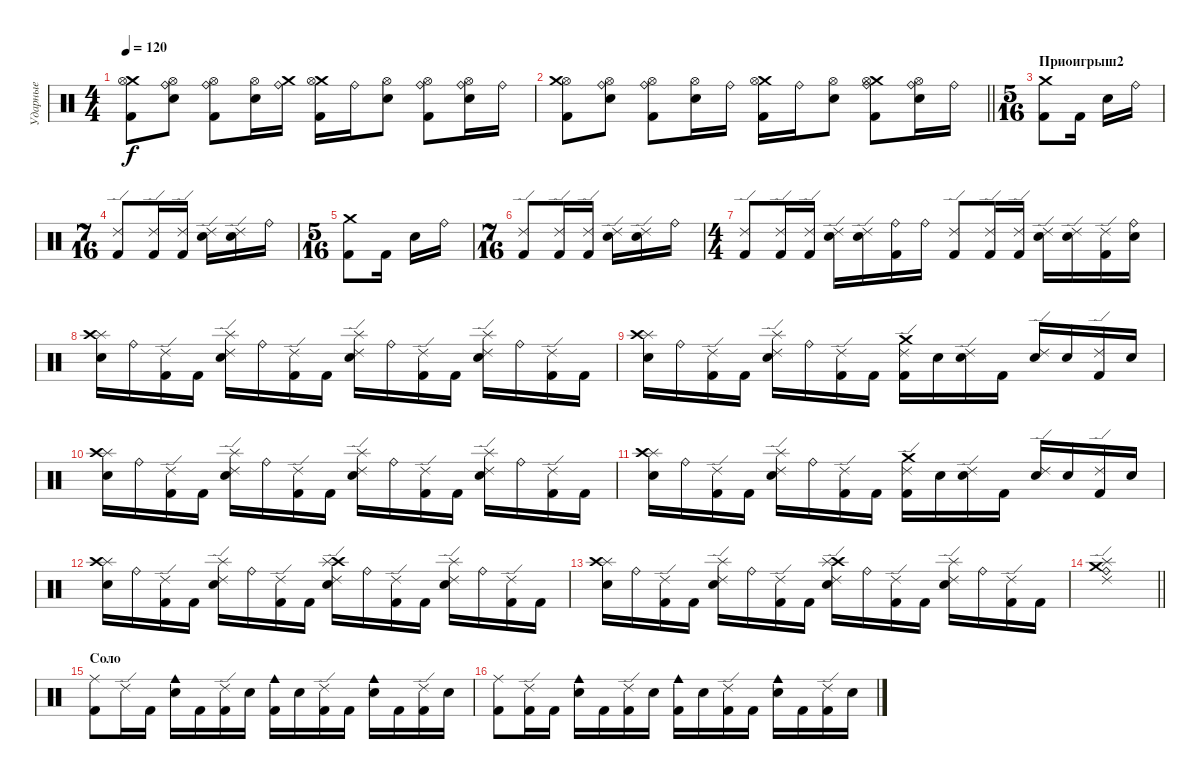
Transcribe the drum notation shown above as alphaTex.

\track ("Ударные" "Ударные") {instrument percussion}
\staff {score}
\articulation defaults
\ts (4 4)
\tempo 120
\clef neutral
\ks c
("Crash medium (hit)" "Kick (hit) 2" "Hi-Hat (open)").8{dy f} ("Electric Snare (hit)" "Hi-Hat (open)" "Ride (bell)").8 ("Kick (hit) 2" "Hi-Hat (open)" "Ride (bell)").8 ("Electric Snare (hit)" "Hi-Hat (open)").16 ("Crash medium (hit)" "Ride (bell)").16 ("Kick (hit) 2" "Crash medium (hit)" "Hi-Hat (open)").16 "Ride (bell)".16 ("Electric Snare (hit)" "Hi-Hat (open)").8 ("Kick (hit) 2" "Hi-Hat (open)" "Ride (bell)").8 ("Electric Snare (hit)" "Hi-Hat (open)" "Ride (bell)").16 "Ride (bell)".16 |
\barLineRight lightlight
("Hi-Hat (open)" "Crash medium (hit)" "Kick (hit) 2").8 ("Hi-Hat (open)" "Electric Snare (hit)" "Ride (bell)").8 ("Hi-Hat (open)" "Kick (hit) 2" "Ride (bell)").8 ("Hi-Hat (open)" "Electric Snare (hit)").16 "Ride (bell)".16 ("Kick (hit) 2" "Crash medium (hit)" "Hi-Hat (open)").16 "Ride (bell)".16 ("Electric Snare (hit)" "Hi-Hat (open)").8 ("Kick (hit) 2" "Crash medium (hit)" "Hi-Hat (open)" "Ride (bell)").8 ("Electric Snare (hit)" "Hi-Hat (open)" "Ride (bell)").16 "Ride (bell)".16 |
\ts (5 16)
\section ("" "Приоигрыш2")
("Kick (hit) 2" "Crash medium (hit)").8 "Kick (hit) 2".16 "Electric Snare (hit)".16 "Ride (bell)".16 |
\ts (7 16)
("Ride (edge) 2" "Kick (hit) 2").8 ("Ride (edge) 2" "Kick (hit) 2").16 ("Ride (edge) 2" "Kick (hit) 2").16 ("Ride (edge) 2" "Electric Snare (hit)").16 ("Ride (edge) 2" "Electric Snare (hit)").16 "Ride (bell)".16 |
\ts (5 16)
("Kick (hit) 2" "Crash medium (hit)").8 "Kick (hit) 2".16 "Electric Snare (hit)".16 "Ride (bell)".16 |
\ts (7 16)
("Ride (edge) 2" "Kick (hit) 2").8 ("Ride (edge) 2" "Kick (hit) 2").16 ("Ride (edge) 2" "Kick (hit) 2").16 ("Ride (edge) 2" "Electric Snare (hit)").16 ("Ride (edge) 2" "Electric Snare (hit)").16 "Ride (bell)".16 |
\ts (4 4)
("Ride (edge) 2" "Kick (hit) 2").8 ("Ride (edge) 2" "Kick (hit) 2").16 ("Ride (edge) 2" "Kick (hit) 2").16 ("Ride (edge) 2" "Electric Snare (hit)").16 ("Ride (edge) 2" "Electric Snare (hit)").16 ("Kick (hit) 2" "Ride (bell)").16 "Ride (bell)".16 ("Ride (edge) 2" "Kick (hit) 2").8 ("Ride (edge) 2" "Kick (hit) 2").16 ("Ride (edge) 2" "Kick (hit) 2").16 ("Ride (edge) 2" "Electric Snare (hit)").16 ("Ride (edge) 2" "Electric Snare (hit)").16 ("Ride (edge) 2" "Kick (hit) 2").16 ("Ride (bell)" "Electric Snare (hit)").16 |
("Splash (hit)" "Crash high (hit)" "Electric Snare (hit)").16 "Ride (bell)".16 ("Ride (edge) 2" "Kick (hit) 2").16 "Kick (hit) 2".16 ("Splash (hit)" "Ride (edge) 2" "Electric Snare (hit)").16 "Ride (bell)".16 ("Ride (edge) 2" "Kick (hit) 2").16 "Kick (hit) 2".16 ("Splash (hit)" "Ride (edge) 2" "Electric Snare (hit)").16 "Ride (bell)".16 ("Ride (edge) 2" "Kick (hit) 2").16 "Kick (hit) 2".16 ("Splash (hit)" "Ride (edge) 2" "Electric Snare (hit)").16 "Ride (bell)".16 ("Ride (edge) 2" "Kick (hit) 2").16 "Kick (hit) 2".16 |
("Splash (hit)" "Crash high (hit)" "Electric Snare (hit)").16 "Ride (bell)".16 ("Ride (edge) 2" "Kick (hit) 2").16 "Kick (hit) 2".16 ("Splash (hit)" "Ride (edge) 2" "Electric Snare (hit)").16 "Ride (bell)".16 ("Ride (edge) 2" "Kick (hit) 2").16 "Kick (hit) 2".16 ("Ride (edge) 2" "Crash medium (hit)" "Kick (hit) 2").16 "Electric Snare (hit)".16 ("Ride (edge) 2" "Electric Snare (hit)").16 "Kick (hit) 2".16 ("Ride (edge) 2" "Electric Snare (hit)").16 "Electric Snare (hit)".16 ("Ride (edge) 2" "Kick (hit) 2").16 "Electric Snare (hit)".16 |
("Splash (hit)" "Crash high (hit)" "Electric Snare (hit)").16 "Ride (bell)".16 ("Ride (edge) 2" "Kick (hit) 2").16 "Kick (hit) 2".16 ("Splash (hit)" "Ride (edge) 2" "Electric Snare (hit)").16 "Ride (bell)".16 ("Ride (edge) 2" "Kick (hit) 2").16 "Kick (hit) 2".16 ("Splash (hit)" "Ride (edge) 2" "Electric Snare (hit)").16 "Ride (bell)".16 ("Ride (edge) 2" "Kick (hit) 2").16 "Kick (hit) 2".16 ("Splash (hit)" "Ride (edge) 2" "Electric Snare (hit)").16 "Ride (bell)".16 ("Ride (edge) 2" "Kick (hit) 2").16 "Kick (hit) 2".16 |
("Splash (hit)" "Crash high (hit)" "Electric Snare (hit)").16 "Ride (bell)".16 ("Ride (edge) 2" "Kick (hit) 2").16 "Kick (hit) 2".16 ("Splash (hit)" "Ride (edge) 2" "Electric Snare (hit)").16 "Ride (bell)".16 ("Ride (edge) 2" "Kick (hit) 2").16 "Kick (hit) 2".16 ("Ride (edge) 2" "Crash medium (hit)" "Kick (hit) 2").16 "Electric Snare (hit)".16 ("Ride (edge) 2" "Electric Snare (hit)").16 "Kick (hit) 2".16 ("Ride (edge) 2" "Electric Snare (hit)").16 "Electric Snare (hit)".16 ("Ride (edge) 2" "Kick (hit) 2").16 "Electric Snare (hit)".16 |
("Splash (hit)" "Crash high (hit)" "Electric Snare (hit)").16 "Ride (bell)".16 ("Ride (edge) 2" "Kick (hit) 2").16 "Kick (hit) 2".16 ("Splash (hit)" "Ride (edge) 2" "Electric Snare (hit)").16 "Ride (bell)".16 ("Ride (edge) 2" "Kick (hit) 2").16 "Kick (hit) 2".16 ("Crash high (hit)" "Splash (hit)" "Ride (edge) 2" "Electric Snare (hit)").16 "Ride (bell)".16 ("Ride (edge) 2" "Kick (hit) 2").16 "Kick (hit) 2".16 ("Splash (hit)" "Ride (edge) 2" "Electric Snare (hit)").16 "Ride (bell)".16 ("Ride (edge) 2" "Kick (hit) 2").16 "Kick (hit) 2".16 |
("Splash (hit)" "Crash high (hit)" "Electric Snare (hit)").16 "Ride (bell)".16 ("Ride (edge) 2" "Kick (hit) 2").16 "Kick (hit) 2".16 ("Splash (hit)" "Ride (edge) 2" "Electric Snare (hit)").16 "Ride (bell)".16 ("Ride (edge) 2" "Kick (hit) 2").16 "Kick (hit) 2".16 ("Crash high (hit)" "Splash (hit)" "Ride (edge) 2" "Electric Snare (hit)").16 "Ride (bell)".16 ("Ride (edge) 2" "Kick (hit) 2").16 "Kick (hit) 2".16 ("Splash (hit)" "Ride (edge) 2" "Electric Snare (hit)").16 "Ride (bell)".16 ("Ride (edge) 2" "Kick (hit) 2").16 "Kick (hit) 2".16 |
\barLineRight lightlight
("Ride (bell)" "Ride (edge) 2" "Crash medium (hit)" "Splash (hit)").1 |
\section ("" "Соло")
("Ride (middle)" "Kick (hit) 2").8 "Ride (edge) 2".16 "Kick (hit) 2".16 ("Cowbell medium (hit)" "Electric Snare (hit)").16 "Kick (hit) 2".16 ("Ride (edge) 2" "Kick (hit) 2").16 "Electric Snare (hit)".16 ("Cowbell medium (hit)" "Kick (hit) 2").16 "Electric Snare (hit)".16 ("Ride (edge) 2" "Kick (hit) 2").16 "Kick (hit) 2".16 ("Cowbell medium (hit)" "Electric Snare (hit)").16 "Kick (hit) 2".16 ("Ride (edge) 2" "Kick (hit) 2").16 "Electric Snare (hit)".16 |
("Kick (hit) 2" "Ride (middle)").8 ("Kick (hit) 2" "Ride (edge) 2").16 "Kick (hit) 2".16 ("Electric Snare (hit)" "Cowbell medium (hit)").16 "Kick (hit) 2".16 ("Kick (hit) 2" "Ride (edge) 2").16 "Electric Snare (hit)".16 ("Kick (hit) 2" "Cowbell medium (hit)").16 "Electric Snare (hit)".16 ("Kick (hit) 2" "Ride (edge) 2").16 "Kick (hit) 2".16 ("Electric Snare (hit)" "Cowbell medium (hit)").16 "Kick (hit) 2".16 ("Kick (hit) 2" "Ride (edge) 2").16 "Electric Snare (hit)".16
